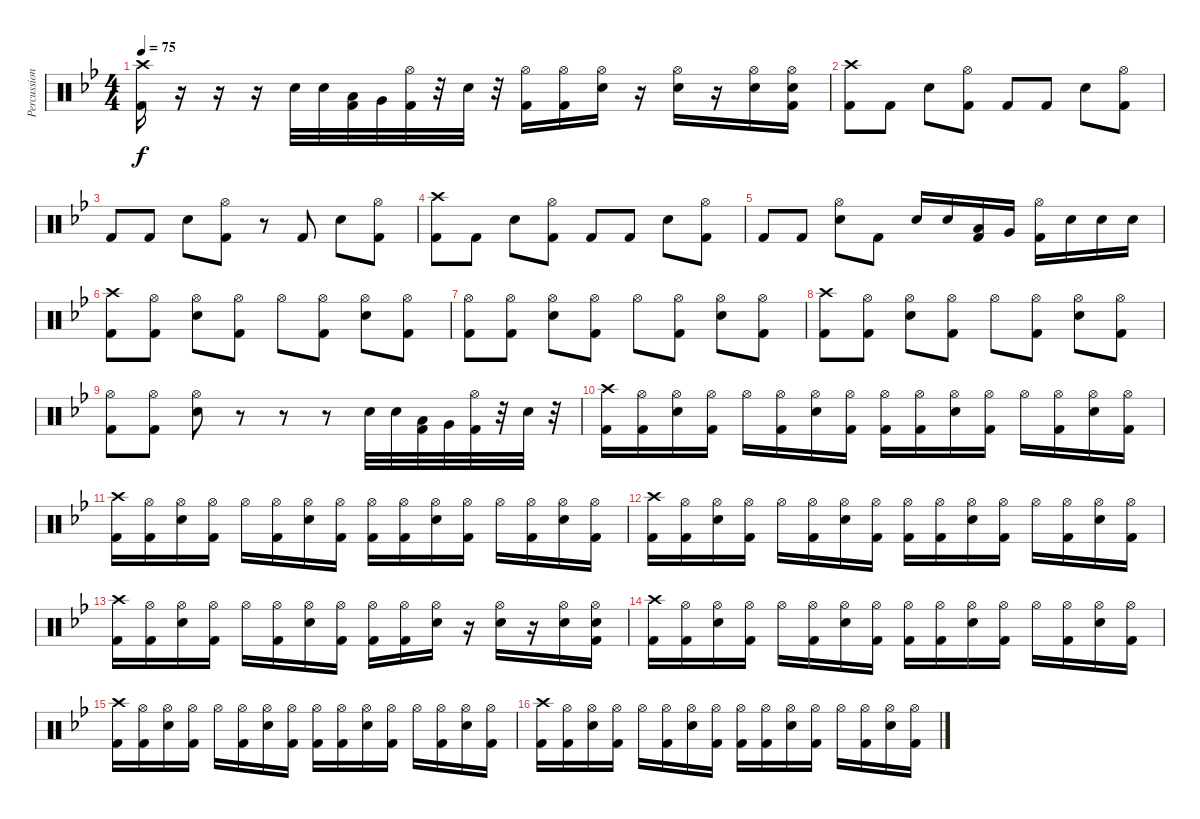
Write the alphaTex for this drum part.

\track ("Percussion" "Percussion") {instrument percussion}
\staff {score}
\articulation defaults
\ts (4 4)
\tempo 75
\clef neutral
\ks bb
("Crash high (hit)" "Kick (hit) 2").16{dy f} r.16 r.16 r.16 "Electric Snare (hit)".32 "Electric Snare (hit)".32 ("Low Tom (hit)" "Kick (hit) 2").32 "Very Low Tom (hit)".32 ("Hi-Hat (open)" "Kick (hit) 2").32 r.32 "Electric Snare (hit)".32 r.32 ("Hi-Hat (open)" "Kick (hit) 2").16 ("Hi-Hat (open)" "Kick (hit) 2").16 ("Hi-Hat (open)" "Electric Snare (hit)").16 r.16 ("Hi-Hat (open)" "Electric Snare (hit)").16 r.16 ("Hi-Hat (open)" "Electric Snare (hit)").16 ("Hi-Hat (open)" "Electric Snare (hit)" "Kick (hit) 2").16 |
("Crash high (hit)" "Kick (hit) 2").8 "Kick (hit) 2".8 "Electric Snare (hit)".8 ("Hi-Hat (open)" "Kick (hit) 2").8 "Kick (hit) 2".8 "Kick (hit) 2".8 "Electric Snare (hit)".8 ("Hi-Hat (open)" "Kick (hit) 2").8 |
"Kick (hit) 2".8 "Kick (hit) 2".8 "Electric Snare (hit)".8 ("Hi-Hat (open)" "Kick (hit) 2").8 r.8 "Kick (hit) 2".8 "Electric Snare (hit)".8 ("Hi-Hat (open)" "Kick (hit) 2").8 |
("Crash high (hit)" "Kick (hit) 2").8 "Kick (hit) 2".8 "Electric Snare (hit)".8 ("Hi-Hat (open)" "Kick (hit) 2").8 "Kick (hit) 2".8 "Kick (hit) 2".8 "Electric Snare (hit)".8 ("Hi-Hat (open)" "Kick (hit) 2").8 |
"Kick (hit) 2".8 "Kick (hit) 2".8 ("Hi-Hat (open)" "Electric Snare (hit)").8 "Kick (hit) 2".8 "Electric Snare (hit)".16 "Electric Snare (hit)".16 ("Low Tom (hit)" "Kick (hit) 2").16 "Very Low Tom (hit)".16 ("Hi-Hat (open)" "Kick (hit) 2").16 "Electric Snare (hit)".16 "Electric Snare (hit)".16 "Electric Snare (hit)".16 |
("Crash high (hit)" "Kick (hit) 2").8 ("Hi-Hat (open)" "Kick (hit) 2").8 ("Hi-Hat (open)" "Electric Snare (hit)").8 ("Hi-Hat (open)" "Kick (hit) 2").8 "Hi-Hat (open)".8 ("Hi-Hat (open)" "Kick (hit) 2").8 ("Hi-Hat (open)" "Electric Snare (hit)").8 ("Hi-Hat (open)" "Kick (hit) 2").8 |
("Hi-Hat (open)" "Kick (hit) 2").8 ("Hi-Hat (open)" "Kick (hit) 2").8 ("Hi-Hat (open)" "Electric Snare (hit)").8 ("Hi-Hat (open)" "Kick (hit) 2").8 "Hi-Hat (open)".8 ("Hi-Hat (open)" "Kick (hit) 2").8 ("Hi-Hat (open)" "Electric Snare (hit)").8 ("Hi-Hat (open)" "Kick (hit) 2").8 |
("Crash high (hit)" "Kick (hit) 2").8 ("Hi-Hat (open)" "Kick (hit) 2").8 ("Hi-Hat (open)" "Electric Snare (hit)").8 ("Hi-Hat (open)" "Kick (hit) 2").8 "Hi-Hat (open)".8 ("Hi-Hat (open)" "Kick (hit) 2").8 ("Hi-Hat (open)" "Electric Snare (hit)").8 ("Hi-Hat (open)" "Kick (hit) 2").8 |
("Hi-Hat (open)" "Kick (hit) 2").8 ("Hi-Hat (open)" "Kick (hit) 2").8 ("Hi-Hat (open)" "Electric Snare (hit)").8 r.8 r.8 r.8 "Electric Snare (hit)".32 "Electric Snare (hit)".32 ("Low Tom (hit)" "Kick (hit) 2").32 "Very Low Tom (hit)".32 ("Hi-Hat (open)" "Kick (hit) 2").32 r.32 "Electric Snare (hit)".32 r.32 |
("Crash high (hit)" "Kick (hit) 2").16 ("Hi-Hat (open)" "Kick (hit) 2").16 ("Hi-Hat (open)" "Electric Snare (hit)").16 ("Hi-Hat (open)" "Kick (hit) 2").16 "Hi-Hat (open)".16 ("Hi-Hat (open)" "Kick (hit) 2").16 ("Hi-Hat (open)" "Electric Snare (hit)").16 ("Hi-Hat (open)" "Kick (hit) 2").16 ("Hi-Hat (open)" "Kick (hit) 2").16 ("Hi-Hat (open)" "Kick (hit) 2").16 ("Hi-Hat (open)" "Electric Snare (hit)").16 ("Hi-Hat (open)" "Kick (hit) 2").16 "Hi-Hat (open)".16 ("Hi-Hat (open)" "Kick (hit) 2").16 ("Hi-Hat (open)" "Electric Snare (hit)").16 ("Hi-Hat (open)" "Kick (hit) 2").16 |
("Crash high (hit)" "Kick (hit) 2").16 ("Hi-Hat (open)" "Kick (hit) 2").16 ("Hi-Hat (open)" "Electric Snare (hit)").16 ("Hi-Hat (open)" "Kick (hit) 2").16 "Hi-Hat (open)".16 ("Hi-Hat (open)" "Kick (hit) 2").16 ("Hi-Hat (open)" "Electric Snare (hit)").16 ("Hi-Hat (open)" "Kick (hit) 2").16 ("Hi-Hat (open)" "Kick (hit) 2").16 ("Hi-Hat (open)" "Kick (hit) 2").16 ("Hi-Hat (open)" "Electric Snare (hit)").16 ("Hi-Hat (open)" "Kick (hit) 2").16 "Hi-Hat (open)".16 ("Hi-Hat (open)" "Kick (hit) 2").16 ("Hi-Hat (open)" "Electric Snare (hit)").16 ("Hi-Hat (open)" "Kick (hit) 2").16 |
("Crash high (hit)" "Kick (hit) 2").16 ("Hi-Hat (open)" "Kick (hit) 2").16 ("Hi-Hat (open)" "Electric Snare (hit)").16 ("Hi-Hat (open)" "Kick (hit) 2").16 "Hi-Hat (open)".16 ("Hi-Hat (open)" "Kick (hit) 2").16 ("Hi-Hat (open)" "Electric Snare (hit)").16 ("Hi-Hat (open)" "Kick (hit) 2").16 ("Hi-Hat (open)" "Kick (hit) 2").16 ("Hi-Hat (open)" "Kick (hit) 2").16 ("Hi-Hat (open)" "Electric Snare (hit)").16 ("Hi-Hat (open)" "Kick (hit) 2").16 "Hi-Hat (open)".16 ("Hi-Hat (open)" "Kick (hit) 2").16 ("Hi-Hat (open)" "Electric Snare (hit)").16 ("Hi-Hat (open)" "Kick (hit) 2").16 |
("Crash high (hit)" "Kick (hit) 2").16 ("Hi-Hat (open)" "Kick (hit) 2").16 ("Hi-Hat (open)" "Electric Snare (hit)").16 ("Hi-Hat (open)" "Kick (hit) 2").16 "Hi-Hat (open)".16 ("Hi-Hat (open)" "Kick (hit) 2").16 ("Hi-Hat (open)" "Electric Snare (hit)").16 ("Hi-Hat (open)" "Kick (hit) 2").16 ("Hi-Hat (open)" "Kick (hit) 2").16 ("Hi-Hat (open)" "Kick (hit) 2").16 ("Hi-Hat (open)" "Electric Snare (hit)").16 r.16 ("Hi-Hat (open)" "Electric Snare (hit)").16 r.16 ("Hi-Hat (open)" "Electric Snare (hit)").16 ("Hi-Hat (open)" "Electric Snare (hit)" "Kick (hit) 2").16 |
("Crash high (hit)" "Kick (hit) 2").16 ("Hi-Hat (open)" "Kick (hit) 2").16 ("Hi-Hat (open)" "Electric Snare (hit)").16 ("Hi-Hat (open)" "Kick (hit) 2").16 "Hi-Hat (open)".16 ("Hi-Hat (open)" "Kick (hit) 2").16 ("Hi-Hat (open)" "Electric Snare (hit)").16 ("Hi-Hat (open)" "Kick (hit) 2").16 ("Hi-Hat (open)" "Kick (hit) 2").16 ("Hi-Hat (open)" "Kick (hit) 2").16 ("Hi-Hat (open)" "Electric Snare (hit)").16 ("Hi-Hat (open)" "Kick (hit) 2").16 "Hi-Hat (open)".16 ("Hi-Hat (open)" "Kick (hit) 2").16 ("Hi-Hat (open)" "Electric Snare (hit)").16 ("Hi-Hat (open)" "Kick (hit) 2").16 |
("Crash high (hit)" "Kick (hit) 2").16 ("Hi-Hat (open)" "Kick (hit) 2").16 ("Hi-Hat (open)" "Electric Snare (hit)").16 ("Hi-Hat (open)" "Kick (hit) 2").16 "Hi-Hat (open)".16 ("Hi-Hat (open)" "Kick (hit) 2").16 ("Hi-Hat (open)" "Electric Snare (hit)").16 ("Hi-Hat (open)" "Kick (hit) 2").16 ("Hi-Hat (open)" "Kick (hit) 2").16 ("Hi-Hat (open)" "Kick (hit) 2").16 ("Hi-Hat (open)" "Electric Snare (hit)").16 ("Hi-Hat (open)" "Kick (hit) 2").16 "Hi-Hat (open)".16 ("Hi-Hat (open)" "Kick (hit) 2").16 ("Hi-Hat (open)" "Electric Snare (hit)").16 ("Hi-Hat (open)" "Kick (hit) 2").16 |
("Crash high (hit)" "Kick (hit) 2").16 ("Hi-Hat (open)" "Kick (hit) 2").16 ("Hi-Hat (open)" "Electric Snare (hit)").16 ("Hi-Hat (open)" "Kick (hit) 2").16 "Hi-Hat (open)".16 ("Hi-Hat (open)" "Kick (hit) 2").16 ("Hi-Hat (open)" "Electric Snare (hit)").16 ("Hi-Hat (open)" "Kick (hit) 2").16 ("Hi-Hat (open)" "Kick (hit) 2").16 ("Hi-Hat (open)" "Kick (hit) 2").16 ("Hi-Hat (open)" "Electric Snare (hit)").16 ("Hi-Hat (open)" "Kick (hit) 2").16 "Hi-Hat (open)".16 ("Hi-Hat (open)" "Kick (hit) 2").16 ("Hi-Hat (open)" "Electric Snare (hit)").16 ("Hi-Hat (open)" "Kick (hit) 2").16
